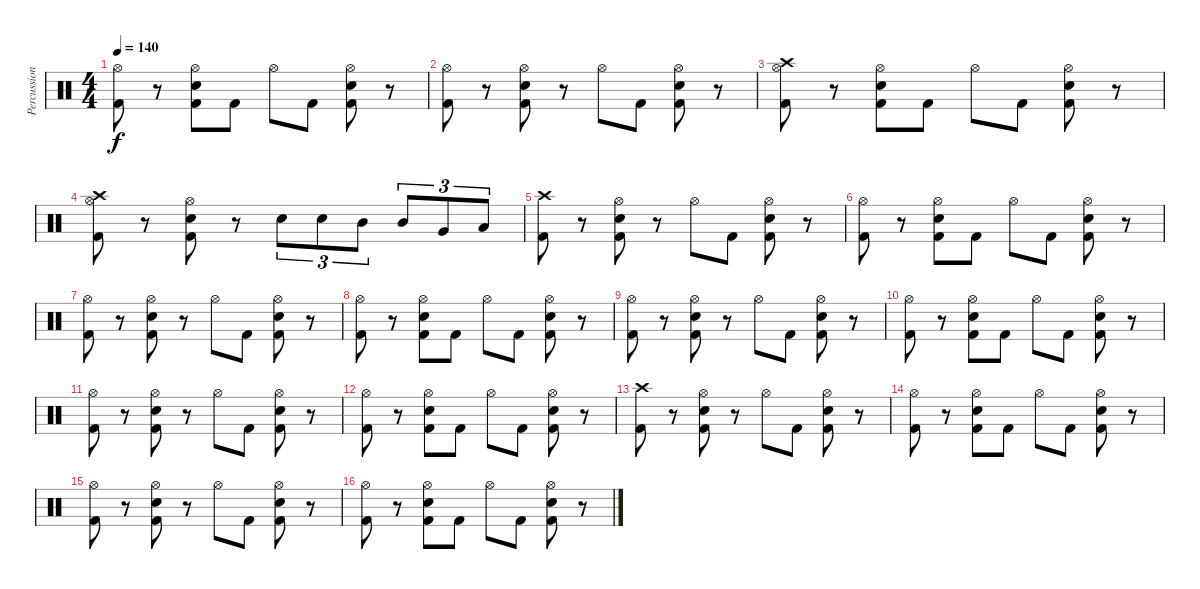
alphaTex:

\track ("Percussion" "Percussion") {instrument percussion}
\staff {score}
\articulation defaults
\ts (4 4)
\tempo 140
\clef neutral
\ks c
("Hi-Hat (open)" "Kick (hit) 2").8{dy f} r.8 ("Snare (hit) 2" "Hi-Hat (open)" "Kick (hit) 2").8 "Kick (hit) 2".8 "Hi-Hat (open)".8 "Kick (hit) 2".8 ("Snare (hit) 2" "Hi-Hat (open)" "Kick (hit) 2").8 r.8 |
("Hi-Hat (open)" "Kick (hit) 2").8 r.8 ("Snare (hit) 2" "Hi-Hat (open)" "Kick (hit) 2").8 r.8 "Hi-Hat (open)".8 "Kick (hit) 2".8 ("Snare (hit) 2" "Hi-Hat (open)" "Kick (hit) 2").8 r.8 |
("Crash high (hit)" "Hi-Hat (open)" "Kick (hit) 2").8 r.8 ("Snare (hit) 2" "Hi-Hat (open)" "Kick (hit) 2").8 "Kick (hit) 2".8 "Hi-Hat (open)".8 "Kick (hit) 2".8 ("Snare (hit) 2" "Hi-Hat (open)" "Kick (hit) 2").8 r.8 |
("Crash high (hit)" "Hi-Hat (open)" "Kick (hit) 2").8 r.8 ("Snare (hit) 2" "Hi-Hat (open)" "Kick (hit) 2").8 r.8 "Snare (hit) 2".8{tu (3 2)} "Snare (hit) 2".8{tu (3 2)} "Mid Tom (hit)".8{tu (3 2)} "Mid Tom (hit)".8{tu (3 2)} "Very Low Tom (hit)".8{tu (3 2)} "Low Floor Tom (hit)".8{tu (3 2)} |
("Crash high (hit)" "Kick (hit) 2").8 r.8 ("Snare (hit) 2" "Hi-Hat (open)" "Kick (hit) 2").8 r.8 "Hi-Hat (open)".8 "Kick (hit) 2".8 ("Snare (hit) 2" "Hi-Hat (open)" "Kick (hit) 2").8 r.8 |
("Hi-Hat (open)" "Kick (hit) 2").8 r.8 ("Snare (hit) 2" "Hi-Hat (open)" "Kick (hit) 2").8 "Kick (hit) 2".8 "Hi-Hat (open)".8 "Kick (hit) 2".8 ("Snare (hit) 2" "Hi-Hat (open)" "Kick (hit) 2").8 r.8 |
("Hi-Hat (open)" "Kick (hit) 2").8 r.8 ("Snare (hit) 2" "Hi-Hat (open)" "Kick (hit) 2").8 r.8 "Hi-Hat (open)".8 "Kick (hit) 2".8 ("Snare (hit) 2" "Hi-Hat (open)" "Kick (hit) 2").8 r.8 |
("Hi-Hat (open)" "Kick (hit) 2").8 r.8 ("Snare (hit) 2" "Hi-Hat (open)" "Kick (hit) 2").8 "Kick (hit) 2".8 "Hi-Hat (open)".8 "Kick (hit) 2".8 ("Snare (hit) 2" "Hi-Hat (open)" "Kick (hit) 2").8 r.8 |
("Hi-Hat (open)" "Kick (hit) 2").8 r.8 ("Snare (hit) 2" "Hi-Hat (open)" "Kick (hit) 2").8 r.8 "Hi-Hat (open)".8 "Kick (hit) 2".8 ("Snare (hit) 2" "Hi-Hat (open)" "Kick (hit) 2").8 r.8 |
("Hi-Hat (open)" "Kick (hit) 2").8 r.8 ("Snare (hit) 2" "Hi-Hat (open)" "Kick (hit) 2").8 "Kick (hit) 2".8 "Hi-Hat (open)".8 "Kick (hit) 2".8 ("Snare (hit) 2" "Hi-Hat (open)" "Kick (hit) 2").8 r.8 |
("Hi-Hat (open)" "Kick (hit) 2").8 r.8 ("Snare (hit) 2" "Hi-Hat (open)" "Kick (hit) 2").8 r.8 "Hi-Hat (open)".8 "Kick (hit) 2".8 ("Snare (hit) 2" "Hi-Hat (open)" "Kick (hit) 2").8 r.8 |
("Hi-Hat (open)" "Kick (hit) 2").8 r.8 ("Snare (hit) 2" "Hi-Hat (open)" "Kick (hit) 2").8 "Kick (hit) 2".8 "Hi-Hat (open)".8 "Kick (hit) 2".8 ("Snare (hit) 2" "Hi-Hat (open)" "Kick (hit) 2").8 r.8 |
("Crash high (hit)" "Kick (hit) 2").8 r.8 ("Snare (hit) 2" "Hi-Hat (open)" "Kick (hit) 2").8 r.8 "Hi-Hat (open)".8 "Kick (hit) 2".8 ("Snare (hit) 2" "Hi-Hat (open)" "Kick (hit) 2").8 r.8 |
("Hi-Hat (open)" "Kick (hit) 2").8 r.8 ("Snare (hit) 2" "Hi-Hat (open)" "Kick (hit) 2").8 "Kick (hit) 2".8 "Hi-Hat (open)".8 "Kick (hit) 2".8 ("Snare (hit) 2" "Hi-Hat (open)" "Kick (hit) 2").8 r.8 |
("Hi-Hat (open)" "Kick (hit) 2").8 r.8 ("Snare (hit) 2" "Hi-Hat (open)" "Kick (hit) 2").8 r.8 "Hi-Hat (open)".8 "Kick (hit) 2".8 ("Snare (hit) 2" "Hi-Hat (open)" "Kick (hit) 2").8 r.8 |
("Hi-Hat (open)" "Kick (hit) 2").8 r.8 ("Snare (hit) 2" "Hi-Hat (open)" "Kick (hit) 2").8 "Kick (hit) 2".8 "Hi-Hat (open)".8 "Kick (hit) 2".8 ("Snare (hit) 2" "Hi-Hat (open)" "Kick (hit) 2").8 r.8
